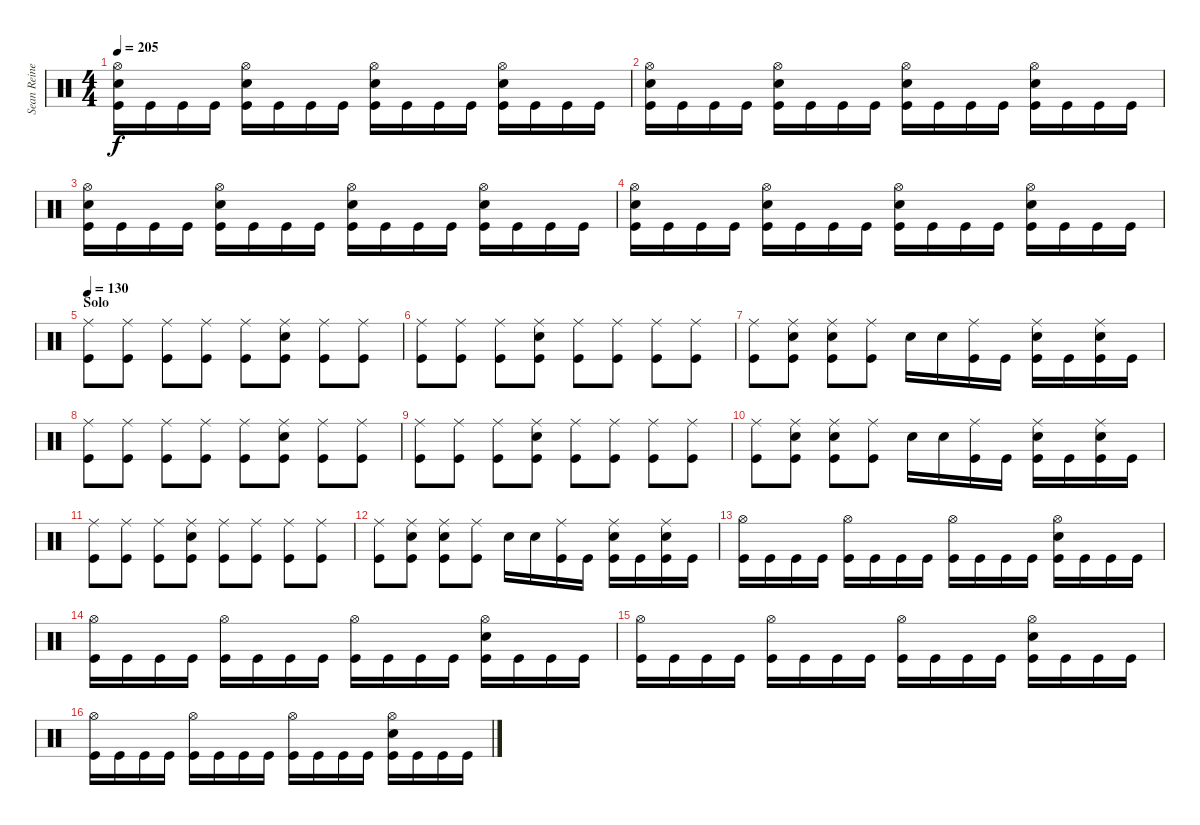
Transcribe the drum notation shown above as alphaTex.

\track ("Sean Reinert" "Sean Reine") {instrument percussion}
\staff {score}
\articulation defaults
\ts (4 4)
\tempo 205
\clef neutral
\ks c
("Hi-Hat (open)" "Snare (hit) 2" "Kick (hit)").16{dy f} "Kick (hit)".16 "Kick (hit)".16 "Kick (hit)".16 ("Hi-Hat (open)" "Snare (hit) 2" "Kick (hit)").16 "Kick (hit)".16 "Kick (hit)".16 "Kick (hit)".16 ("Hi-Hat (open)" "Snare (hit) 2" "Kick (hit)").16 "Kick (hit)".16 "Kick (hit)".16 "Kick (hit)".16 ("Hi-Hat (open)" "Snare (hit) 2" "Kick (hit)").16 "Kick (hit)".16 "Kick (hit)".16 "Kick (hit)".16 |
("Hi-Hat (open)" "Snare (hit) 2" "Kick (hit)").16 "Kick (hit)".16 "Kick (hit)".16 "Kick (hit)".16 ("Hi-Hat (open)" "Snare (hit) 2" "Kick (hit)").16 "Kick (hit)".16 "Kick (hit)".16 "Kick (hit)".16 ("Hi-Hat (open)" "Snare (hit) 2" "Kick (hit)").16 "Kick (hit)".16 "Kick (hit)".16 "Kick (hit)".16 ("Hi-Hat (open)" "Snare (hit) 2" "Kick (hit)").16 "Kick (hit)".16 "Kick (hit)".16 "Kick (hit)".16 |
("Hi-Hat (open)" "Snare (hit) 2" "Kick (hit)").16 "Kick (hit)".16 "Kick (hit)".16 "Kick (hit)".16 ("Hi-Hat (open)" "Snare (hit) 2" "Kick (hit)").16 "Kick (hit)".16 "Kick (hit)".16 "Kick (hit)".16 ("Hi-Hat (open)" "Snare (hit) 2" "Kick (hit)").16 "Kick (hit)".16 "Kick (hit)".16 "Kick (hit)".16 ("Hi-Hat (open)" "Snare (hit) 2" "Kick (hit)").16 "Kick (hit)".16 "Kick (hit)".16 "Kick (hit)".16 |
("Hi-Hat (open)" "Snare (hit) 2" "Kick (hit)").16 "Kick (hit)".16 "Kick (hit)".16 "Kick (hit)".16 ("Hi-Hat (open)" "Snare (hit) 2" "Kick (hit)").16 "Kick (hit)".16 "Kick (hit)".16 "Kick (hit)".16 ("Hi-Hat (open)" "Snare (hit) 2" "Kick (hit)").16 "Kick (hit)".16 "Kick (hit)".16 "Kick (hit)".16 ("Hi-Hat (open)" "Snare (hit) 2" "Kick (hit)").16 "Kick (hit)".16 "Kick (hit)".16 "Kick (hit)".16 |
\section ("" "Solo")
\tempo 130
("Ride (middle)" "Kick (hit)").8 ("Ride (middle)" "Kick (hit)").8 ("Ride (middle)" "Kick (hit)").8 ("Ride (middle)" "Kick (hit)").8 ("Ride (middle)" "Kick (hit)").8 ("Ride (middle)" "Snare (hit) 2" "Kick (hit)").8 ("Ride (middle)" "Kick (hit)").8 ("Ride (middle)" "Kick (hit)").8 |
("Ride (middle)" "Kick (hit)").8 ("Ride (middle)" "Kick (hit)").8 ("Ride (middle)" "Kick (hit)").8 ("Ride (middle)" "Snare (hit) 2" "Kick (hit)").8 ("Ride (middle)" "Kick (hit)").8 ("Ride (middle)" "Kick (hit)").8 ("Ride (middle)" "Kick (hit)").8 ("Ride (middle)" "Kick (hit)").8 |
("Ride (middle)" "Kick (hit)").8 ("Ride (middle)" "Snare (hit) 2" "Kick (hit)").8 ("Ride (middle)" "Snare (hit) 2" "Kick (hit)").8 ("Ride (middle)" "Kick (hit)").8 "Snare (hit) 2".16 "Snare (hit) 2".16 ("Ride (middle)" "Kick (hit)").16 "Kick (hit)".16 ("Ride (middle)" "Snare (hit) 2" "Kick (hit)").16 "Kick (hit)".16 ("Ride (middle)" "Snare (hit) 2" "Kick (hit)").16 "Kick (hit)".16 |
("Ride (middle)" "Kick (hit)").8 ("Ride (middle)" "Kick (hit)").8 ("Ride (middle)" "Kick (hit)").8 ("Ride (middle)" "Kick (hit)").8 ("Ride (middle)" "Kick (hit)").8 ("Ride (middle)" "Snare (hit) 2" "Kick (hit)").8 ("Ride (middle)" "Kick (hit)").8 ("Ride (middle)" "Kick (hit)").8 |
("Ride (middle)" "Kick (hit)").8 ("Ride (middle)" "Kick (hit)").8 ("Ride (middle)" "Kick (hit)").8 ("Ride (middle)" "Snare (hit) 2" "Kick (hit)").8 ("Ride (middle)" "Kick (hit)").8 ("Ride (middle)" "Kick (hit)").8 ("Ride (middle)" "Kick (hit)").8 ("Ride (middle)" "Kick (hit)").8 |
("Ride (middle)" "Kick (hit)").8 ("Ride (middle)" "Snare (hit) 2" "Kick (hit)").8 ("Ride (middle)" "Snare (hit) 2" "Kick (hit)").8 ("Ride (middle)" "Kick (hit)").8 "Snare (hit) 2".16 "Snare (hit) 2".16 ("Ride (middle)" "Kick (hit)").16 "Kick (hit)".16 ("Ride (middle)" "Snare (hit) 2" "Kick (hit)").16 "Kick (hit)".16 ("Ride (middle)" "Snare (hit) 2" "Kick (hit)").16 "Kick (hit)".16 |
("Ride (middle)" "Kick (hit)").8 ("Ride (middle)" "Kick (hit)").8 ("Ride (middle)" "Kick (hit)").8 ("Ride (middle)" "Snare (hit) 2" "Kick (hit)").8 ("Ride (middle)" "Kick (hit)").8 ("Ride (middle)" "Kick (hit)").8 ("Ride (middle)" "Kick (hit)").8 ("Ride (middle)" "Kick (hit)").8 |
("Ride (middle)" "Kick (hit)").8 ("Ride (middle)" "Snare (hit) 2" "Kick (hit)").8 ("Ride (middle)" "Snare (hit) 2" "Kick (hit)").8 ("Ride (middle)" "Kick (hit)").8 "Snare (hit) 2".16 "Snare (hit) 2".16 ("Ride (middle)" "Kick (hit)").16 "Kick (hit)".16 ("Ride (middle)" "Snare (hit) 2" "Kick (hit)").16 "Kick (hit)".16 ("Ride (middle)" "Snare (hit) 2" "Kick (hit)").16 "Kick (hit)".16 |
("Hi-Hat (open)" "Kick (hit)").16 "Kick (hit)".16 "Kick (hit)".16 "Kick (hit)".16 ("Hi-Hat (open)" "Kick (hit)").16 "Kick (hit)".16 "Kick (hit)".16 "Kick (hit)".16 ("Hi-Hat (open)" "Kick (hit)").16 "Kick (hit)".16 "Kick (hit)".16 "Kick (hit)".16 ("Hi-Hat (open)" "Snare (hit) 2" "Kick (hit)").16 "Kick (hit)".16 "Kick (hit)".16 "Kick (hit)".16 |
("Hi-Hat (open)" "Kick (hit)").16 "Kick (hit)".16 "Kick (hit)".16 "Kick (hit)".16 ("Hi-Hat (open)" "Kick (hit)").16 "Kick (hit)".16 "Kick (hit)".16 "Kick (hit)".16 ("Hi-Hat (open)" "Kick (hit)").16 "Kick (hit)".16 "Kick (hit)".16 "Kick (hit)".16 ("Hi-Hat (open)" "Snare (hit) 2" "Kick (hit)").16 "Kick (hit)".16 "Kick (hit)".16 "Kick (hit)".16 |
("Hi-Hat (open)" "Kick (hit)").16 "Kick (hit)".16 "Kick (hit)".16 "Kick (hit)".16 ("Hi-Hat (open)" "Kick (hit)").16 "Kick (hit)".16 "Kick (hit)".16 "Kick (hit)".16 ("Hi-Hat (open)" "Kick (hit)").16 "Kick (hit)".16 "Kick (hit)".16 "Kick (hit)".16 ("Hi-Hat (open)" "Snare (hit) 2" "Kick (hit)").16 "Kick (hit)".16 "Kick (hit)".16 "Kick (hit)".16 |
("Hi-Hat (open)" "Kick (hit)").16 "Kick (hit)".16 "Kick (hit)".16 "Kick (hit)".16 ("Hi-Hat (open)" "Kick (hit)").16 "Kick (hit)".16 "Kick (hit)".16 "Kick (hit)".16 ("Hi-Hat (open)" "Kick (hit)").16 "Kick (hit)".16 "Kick (hit)".16 "Kick (hit)".16 ("Hi-Hat (open)" "Snare (hit) 2" "Kick (hit)").16 "Kick (hit)".16 "Kick (hit)".16 "Kick (hit)".16
